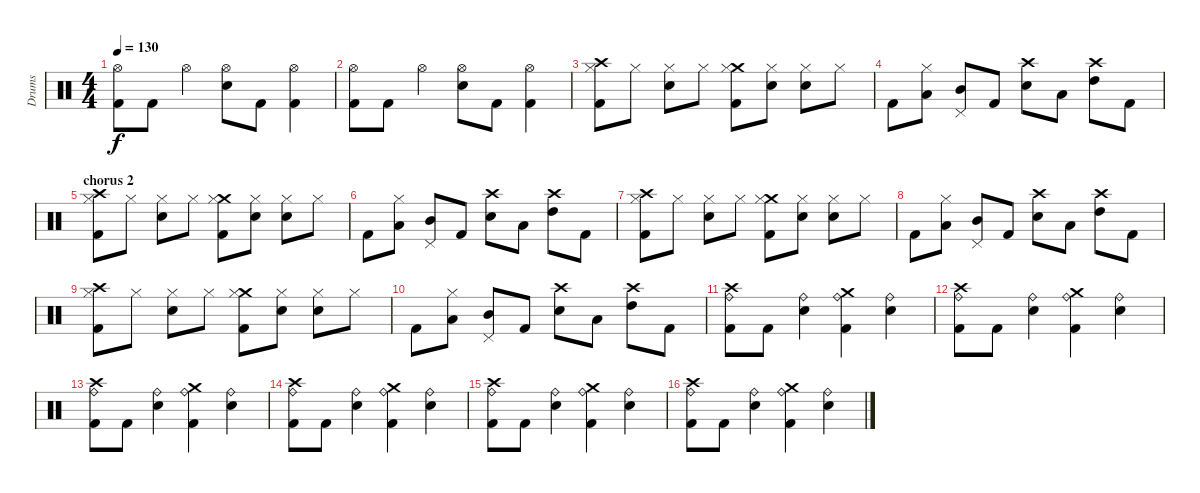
\track ("Drums" "Drums") {instrument percussion}
\staff {score}
\articulation defaults
\ts (4 4)
\tempo 130
\clef neutral
\ks c
("Hi-Hat (open)" "Kick (hit) 2").8{dy f} "Kick (hit) 2".8 "Hi-Hat (open)".4 ("Hi-Hat (open)" "Electric Snare (hit)").8 "Kick (hit) 2".8 ("Hi-Hat (open)" "Kick (hit) 2").4 |
("Hi-Hat (open)" "Kick (hit) 2").8 "Kick (hit) 2".8 "Hi-Hat (open)".4 ("Hi-Hat (open)" "Electric Snare (hit)").8 "Kick (hit) 2".8 ("Hi-Hat (open)" "Kick (hit) 2").4 |
("Crash high (hit)" "Hi-Hat (closed)" "Kick (hit) 2").8 "Hi-Hat (closed)".8 ("Hi-Hat (closed)" "Electric Snare (hit)").8 "Hi-Hat (closed)".8 ("Crash medium (hit)" "Hi-Hat (closed)" "Kick (hit) 2").8 ("Hi-Hat (closed)" "Electric Snare (hit)").8 ("Hi-Hat (closed)" "Electric Snare (hit)").8 "Hi-Hat (closed)".8 |
"Kick (hit) 2".8 ("Hi-Hat (closed)" "Low Tom (hit)").8 ("Pedal Hi-Hat (hit)" "Mid Tom (hit)").8 "Kick (hit) 2".8 ("Crash high (hit)" "Electric Snare (hit)").8 "Low Tom (hit)".8 ("Crash high (hit)" "High Tom (hit)").8 "Kick (hit) 2".8 |
\section ("" "chorus 2")
("Crash high (hit)" "Hi-Hat (closed)" "Kick (hit) 2").8 "Hi-Hat (closed)".8 ("Hi-Hat (closed)" "Electric Snare (hit)").8 "Hi-Hat (closed)".8 ("Crash medium (hit)" "Hi-Hat (closed)" "Kick (hit) 2").8 ("Hi-Hat (closed)" "Electric Snare (hit)").8 ("Hi-Hat (closed)" "Electric Snare (hit)").8 "Hi-Hat (closed)".8 |
"Kick (hit) 2".8 ("Hi-Hat (closed)" "Low Tom (hit)").8 ("Pedal Hi-Hat (hit)" "Mid Tom (hit)").8 "Kick (hit) 2".8 ("Crash high (hit)" "Electric Snare (hit)").8 "Low Tom (hit)".8 ("Crash high (hit)" "High Tom (hit)").8 "Kick (hit) 2".8 |
("Crash high (hit)" "Hi-Hat (closed)" "Kick (hit) 2").8 "Hi-Hat (closed)".8 ("Hi-Hat (closed)" "Electric Snare (hit)").8 "Hi-Hat (closed)".8 ("Crash medium (hit)" "Hi-Hat (closed)" "Kick (hit) 2").8 ("Hi-Hat (closed)" "Electric Snare (hit)").8 ("Hi-Hat (closed)" "Electric Snare (hit)").8 "Hi-Hat (closed)".8 |
"Kick (hit) 2".8 ("Hi-Hat (closed)" "Low Tom (hit)").8 ("Pedal Hi-Hat (hit)" "Mid Tom (hit)").8 "Kick (hit) 2".8 ("Crash high (hit)" "Electric Snare (hit)").8 "Low Tom (hit)".8 ("Crash high (hit)" "High Tom (hit)").8 "Kick (hit) 2".8 |
("Crash high (hit)" "Hi-Hat (closed)" "Kick (hit) 2").8 "Hi-Hat (closed)".8 ("Hi-Hat (closed)" "Electric Snare (hit)").8 "Hi-Hat (closed)".8 ("Crash medium (hit)" "Hi-Hat (closed)" "Kick (hit) 2").8 ("Hi-Hat (closed)" "Electric Snare (hit)").8 ("Hi-Hat (closed)" "Electric Snare (hit)").8 "Hi-Hat (closed)".8 |
"Kick (hit) 2".8 ("Hi-Hat (closed)" "Low Tom (hit)").8 ("Pedal Hi-Hat (hit)" "Mid Tom (hit)").8 "Kick (hit) 2".8 ("Crash high (hit)" "Electric Snare (hit)").8 "Low Tom (hit)".8 ("Crash high (hit)" "High Tom (hit)").8 "Kick (hit) 2".8 |
("Crash high (hit)" "Ride (bell)" "Kick (hit) 2").8 "Kick (hit) 2".8 ("Ride (bell)" "Electric Snare (hit)").4 ("Crash medium (hit)" "Ride (bell)" "Kick (hit) 2").4 ("Ride (bell)" "Electric Snare (hit)").4 |
("Crash high (hit)" "Ride (bell)" "Kick (hit) 2").8 "Kick (hit) 2".8 ("Ride (bell)" "Electric Snare (hit)").4 ("Crash medium (hit)" "Ride (bell)" "Kick (hit) 2").4 ("Ride (bell)" "Electric Snare (hit)").4 |
("Crash high (hit)" "Ride (bell)" "Kick (hit) 2").8 "Kick (hit) 2".8 ("Ride (bell)" "Electric Snare (hit)").4 ("Crash medium (hit)" "Ride (bell)" "Kick (hit) 2").4 ("Ride (bell)" "Electric Snare (hit)").4 |
("Crash high (hit)" "Ride (bell)" "Kick (hit) 2").8 "Kick (hit) 2".8 ("Ride (bell)" "Electric Snare (hit)").4 ("Crash medium (hit)" "Ride (bell)" "Kick (hit) 2").4 ("Ride (bell)" "Electric Snare (hit)").4 |
("Crash high (hit)" "Ride (bell)" "Kick (hit) 2").8 "Kick (hit) 2".8 ("Ride (bell)" "Electric Snare (hit)").4 ("Crash medium (hit)" "Ride (bell)" "Kick (hit) 2").4 ("Ride (bell)" "Electric Snare (hit)").4 |
("Crash high (hit)" "Ride (bell)" "Kick (hit) 2").8 "Kick (hit) 2".8 ("Ride (bell)" "Electric Snare (hit)").4 ("Crash medium (hit)" "Ride (bell)" "Kick (hit) 2").4 ("Ride (bell)" "Electric Snare (hit)").4
